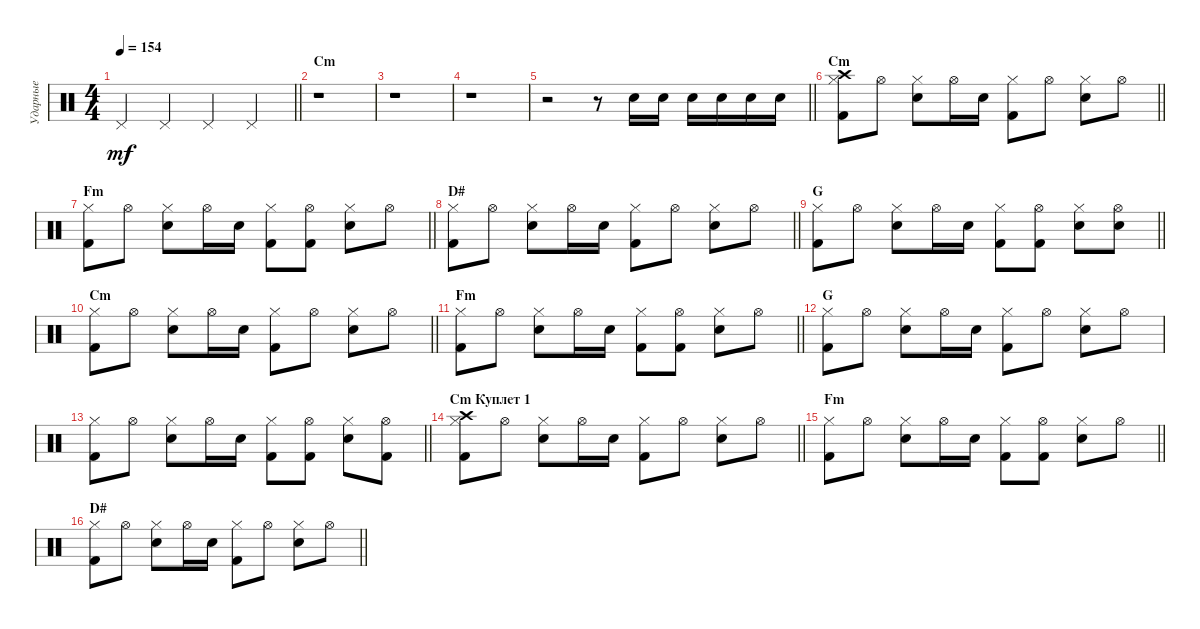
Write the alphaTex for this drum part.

\track ("Ударные" "Ударные") {instrument percussion}
\staff {score}
\articulation defaults
\ts (4 4)
\tempo 154
\clef neutral
\barLineRight lightlight
\ks c "Pedal Hi-Hat (hit)".4{dy mf} "Pedal Hi-Hat (hit)".4 "Pedal Hi-Hat (hit)".4 "Pedal Hi-Hat (hit)".4
|
\section ("" "Cm")
r.1 |
r.1 |
r.1 |
\barLineRight lightlight
r.2 r.8 "Electric Snare (hit)".16 "Electric Snare (hit)".16 "Electric Snare (hit)".16 "Electric Snare (hit)".16 "Electric Snare (hit)".16 "Electric Snare (hit)".16 |
\section ("" "Cm")
\barLineRight lightlight
("Crash high (hit)" "Hi-Hat (closed)" "Kick (hit) 2").8 "Hi-Hat (open)".8 ("Hi-Hat (closed)" "Electric Snare (hit)").8 "Hi-Hat (open)".16 "Electric Snare (hit)".16 ("Hi-Hat (closed)" "Kick (hit) 2").8 "Hi-Hat (open)".8 ("Hi-Hat (closed)" "Electric Snare (hit)").8 "Hi-Hat (open)".8 |
\section ("" "Fm")
\barLineRight lightlight
("Hi-Hat (closed)" "Kick (hit) 2").8 "Hi-Hat (open)".8 ("Hi-Hat (closed)" "Electric Snare (hit)").8 "Hi-Hat (open)".16 "Electric Snare (hit)".16 ("Hi-Hat (closed)" "Kick (hit) 2").8 ("Hi-Hat (open)" "Kick (hit) 2").8 ("Hi-Hat (closed)" "Electric Snare (hit)").8 "Hi-Hat (open)".8 |
\section ("" "D#")
\barLineRight lightlight
("Hi-Hat (closed)" "Kick (hit) 2").8 "Hi-Hat (open)".8 ("Hi-Hat (closed)" "Electric Snare (hit)").8 "Hi-Hat (open)".16 "Electric Snare (hit)".16 ("Hi-Hat (closed)" "Kick (hit) 2").8 "Hi-Hat (open)".8 ("Hi-Hat (closed)" "Electric Snare (hit)").8 "Hi-Hat (open)".8 |
\section ("" "G")
\barLineRight lightlight
("Hi-Hat (closed)" "Kick (hit) 2").8 "Hi-Hat (open)".8 ("Hi-Hat (closed)" "Electric Snare (hit)").8 "Hi-Hat (open)".16 "Electric Snare (hit)".16 ("Hi-Hat (closed)" "Kick (hit) 2").8 ("Hi-Hat (open)" "Kick (hit) 2").8 ("Hi-Hat (closed)" "Electric Snare (hit)").8 ("Hi-Hat (open)" "Electric Snare (hit)").8 |
\section ("" "Cm")
\barLineRight lightlight
("Hi-Hat (closed)" "Kick (hit) 2").8 "Hi-Hat (open)".8 ("Hi-Hat (closed)" "Electric Snare (hit)").8 "Hi-Hat (open)".16 "Electric Snare (hit)".16 ("Hi-Hat (closed)" "Kick (hit) 2").8 "Hi-Hat (open)".8 ("Hi-Hat (closed)" "Electric Snare (hit)").8 "Hi-Hat (open)".8 |
\section ("" "Fm")
\barLineRight lightlight
("Hi-Hat (closed)" "Kick (hit) 2").8 "Hi-Hat (open)".8 ("Hi-Hat (closed)" "Electric Snare (hit)").8 "Hi-Hat (open)".16 "Electric Snare (hit)".16 ("Hi-Hat (closed)" "Kick (hit) 2").8 ("Hi-Hat (open)" "Kick (hit) 2").8 ("Hi-Hat (closed)" "Electric Snare (hit)").8 "Hi-Hat (open)".8 |
\section ("" "G")
("Hi-Hat (closed)" "Kick (hit) 2").8 "Hi-Hat (open)".8 ("Hi-Hat (closed)" "Electric Snare (hit)").8 "Hi-Hat (open)".16 "Electric Snare (hit)".16 ("Hi-Hat (closed)" "Kick (hit) 2").8 "Hi-Hat (open)".8 ("Hi-Hat (closed)" "Electric Snare (hit)").8 "Hi-Hat (open)".8 |
\barLineRight lightlight
("Hi-Hat (closed)" "Kick (hit) 2").8 "Hi-Hat (open)".8 ("Hi-Hat (closed)" "Electric Snare (hit)").8 "Hi-Hat (open)".16 "Electric Snare (hit)".16 ("Hi-Hat (closed)" "Kick (hit) 2").8 ("Hi-Hat (open)" "Kick (hit) 2").8 ("Hi-Hat (closed)" "Electric Snare (hit)").8 ("Hi-Hat (open)" "Kick (hit) 2").8 |
\section ("" "Cm Куплет 1")
\barLineRight lightlight
("Crash high (hit)" "Hi-Hat (closed)" "Kick (hit) 2").8 "Hi-Hat (open)".8 ("Hi-Hat (closed)" "Electric Snare (hit)").8 "Hi-Hat (open)".16 "Electric Snare (hit)".16 ("Hi-Hat (closed)" "Kick (hit) 2").8 "Hi-Hat (open)".8 ("Hi-Hat (closed)" "Electric Snare (hit)").8 "Hi-Hat (open)".8 |
\section ("" "Fm")
\barLineRight lightlight
("Hi-Hat (closed)" "Kick (hit) 2").8 "Hi-Hat (open)".8 ("Hi-Hat (closed)" "Electric Snare (hit)").8 "Hi-Hat (open)".16 "Electric Snare (hit)".16 ("Hi-Hat (closed)" "Kick (hit) 2").8 ("Hi-Hat (open)" "Kick (hit) 2").8 ("Hi-Hat (closed)" "Electric Snare (hit)").8 "Hi-Hat (open)".8 |
\section ("" "D#")
\barLineRight lightlight
("Hi-Hat (closed)" "Kick (hit) 2").8 "Hi-Hat (open)".8 ("Hi-Hat (closed)" "Electric Snare (hit)").8 "Hi-Hat (open)".16 "Electric Snare (hit)".16 ("Hi-Hat (closed)" "Kick (hit) 2").8 "Hi-Hat (open)".8 ("Hi-Hat (closed)" "Electric Snare (hit)").8 "Hi-Hat (open)".8
